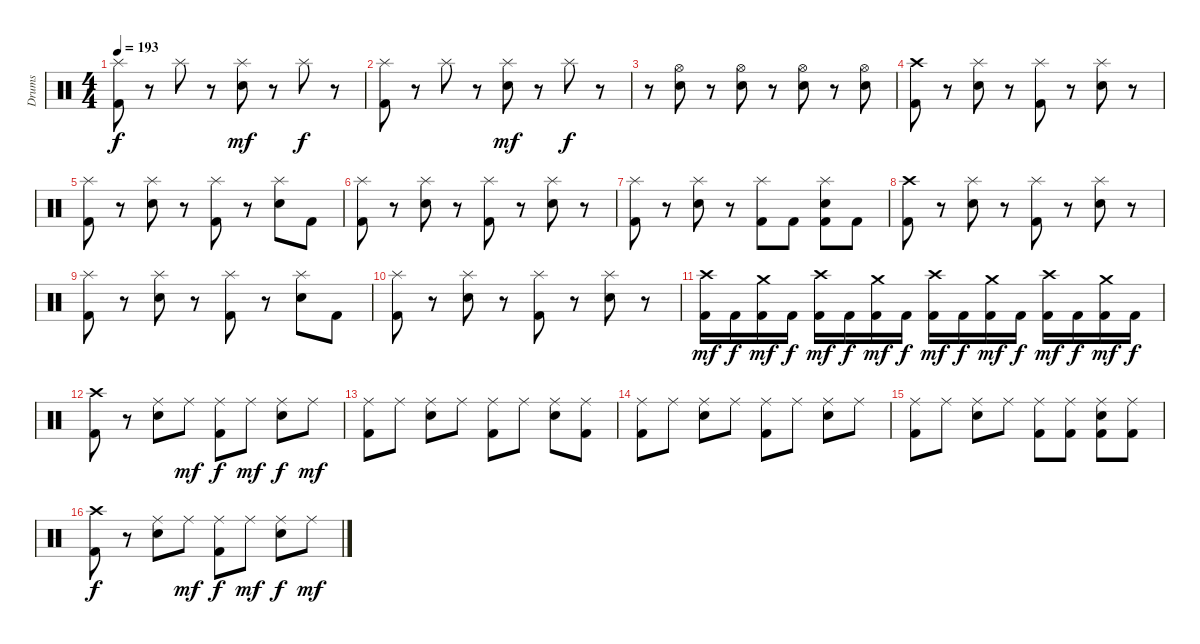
\track ("Drums" "Drums") {instrument percussion}
\staff {score}
\articulation defaults
\ts (4 4)
\tempo 193
\clef neutral
\ks c
("Splash (hit)" "Kick (hit) 2").8{dy f} r.8 "Splash (hit)".8 r.8 ("Splash (hit)" "Electric Snare (hit)").8{dy mf} r.8 "Splash (hit)".8{dy f} r.8 |
("Splash (hit)" "Kick (hit) 2").8 r.8 "Splash (hit)".8 r.8 ("Splash (hit)" "Electric Snare (hit)").8{dy mf} r.8 "Splash (hit)".8{dy f} r.8 |
r.8 ("Hi-Hat (open)" "Electric Snare (hit)").8 r.8 ("Hi-Hat (open)" "Electric Snare (hit)").8 r.8 ("Hi-Hat (open)" "Electric Snare (hit)").8 r.8 ("Hi-Hat (open)" "Electric Snare (hit)").8 |
("Crash high (hit)" "Kick (hit) 2").8 r.8 ("Splash (hit)" "Electric Snare (hit)").8 r.8 ("Splash (hit)" "Kick (hit) 2").8 r.8 ("Splash (hit)" "Electric Snare (hit)").8 r.8 |
("Splash (hit)" "Kick (hit) 2").8 r.8 ("Splash (hit)" "Electric Snare (hit)").8 r.8 ("Splash (hit)" "Kick (hit) 2").8 r.8 ("Splash (hit)" "Electric Snare (hit)").8 "Kick (hit) 2".8 |
("Splash (hit)" "Kick (hit) 2").8 r.8 ("Splash (hit)" "Electric Snare (hit)").8 r.8 ("Splash (hit)" "Kick (hit) 2").8 r.8 ("Splash (hit)" "Electric Snare (hit)").8 r.8 |
("Splash (hit)" "Kick (hit) 2").8 r.8 ("Splash (hit)" "Electric Snare (hit)").8 r.8 ("Splash (hit)" "Kick (hit) 2").8 "Kick (hit) 2".8 ("Splash (hit)" "Electric Snare (hit)" "Kick (hit) 2").8 "Kick (hit) 2".8 |
("Crash high (hit)" "Kick (hit) 2").8 r.8 ("Splash (hit)" "Electric Snare (hit)").8 r.8 ("Splash (hit)" "Kick (hit) 2").8 r.8 ("Splash (hit)" "Electric Snare (hit)").8 r.8 |
("Splash (hit)" "Kick (hit) 2").8 r.8 ("Splash (hit)" "Electric Snare (hit)").8 r.8 ("Splash (hit)" "Kick (hit) 2").8 r.8 ("Splash (hit)" "Electric Snare (hit)").8 "Kick (hit) 2".8 |
("Splash (hit)" "Kick (hit) 2").8 r.8 ("Splash (hit)" "Electric Snare (hit)").8 r.8 ("Splash (hit)" "Kick (hit) 2").8 r.8 ("Splash (hit)" "Electric Snare (hit)").8 r.8 |
("Crash high (hit)" "Kick (hit) 2").16{dy mf} "Kick (hit) 2".16{dy f} ("Crash medium (hit)" "Kick (hit) 2").16{dy mf} "Kick (hit) 2".16{dy f} ("Crash high (hit)" "Kick (hit) 2").16{dy mf} "Kick (hit) 2".16{dy f} ("Crash medium (hit)" "Kick (hit) 2").16{dy mf} "Kick (hit) 2".16{dy f} ("Crash high (hit)" "Kick (hit) 2").16{dy mf} "Kick (hit) 2".16{dy f} ("Crash medium (hit)" "Kick (hit) 2").16{dy mf} "Kick (hit) 2".16{dy f} ("Crash high (hit)" "Kick (hit) 2").16{dy mf} "Kick (hit) 2".16{dy f} ("Crash medium (hit)" "Kick (hit) 2").16{dy mf} "Kick (hit) 2".16{dy f} |
("Crash high (hit)" "Kick (hit) 2").8 r.8 ("Ride (middle)" "Electric Snare (hit)").8 "Ride (middle)".8{dy mf} ("Ride (middle)" "Kick (hit) 2").8{dy f} "Ride (middle)".8{dy mf} ("Ride (middle)" "Electric Snare (hit)").8{dy f} "Ride (middle)".8{dy mf} |
("Ride (middle)" "Kick (hit) 2").8 "Ride (middle)".8 ("Ride (middle)" "Electric Snare (hit)").8 "Ride (middle)".8 ("Ride (middle)" "Kick (hit) 2").8 "Ride (middle)".8 ("Ride (middle)" "Electric Snare (hit)").8 ("Ride (middle)" "Kick (hit) 2").8 |
("Ride (middle)" "Kick (hit) 2").8 "Ride (middle)".8 ("Ride (middle)" "Electric Snare (hit)").8 "Ride (middle)".8 ("Ride (middle)" "Kick (hit) 2").8 "Ride (middle)".8 ("Ride (middle)" "Electric Snare (hit)").8 "Ride (middle)".8 |
("Ride (middle)" "Kick (hit) 2").8 "Ride (middle)".8 ("Ride (middle)" "Electric Snare (hit)").8 "Ride (middle)".8 ("Ride (middle)" "Kick (hit) 2").8 ("Ride (middle)" "Kick (hit) 2").8 ("Ride (middle)" "Electric Snare (hit)" "Kick (hit) 2").8 ("Ride (middle)" "Kick (hit) 2").8 |
("Crash high (hit)" "Kick (hit) 2").8{dy f} r.8 ("Ride (middle)" "Electric Snare (hit)").8 "Ride (middle)".8{dy mf} ("Ride (middle)" "Kick (hit) 2").8{dy f} "Ride (middle)".8{dy mf} ("Ride (middle)" "Electric Snare (hit)").8{dy f} "Ride (middle)".8{dy mf}
